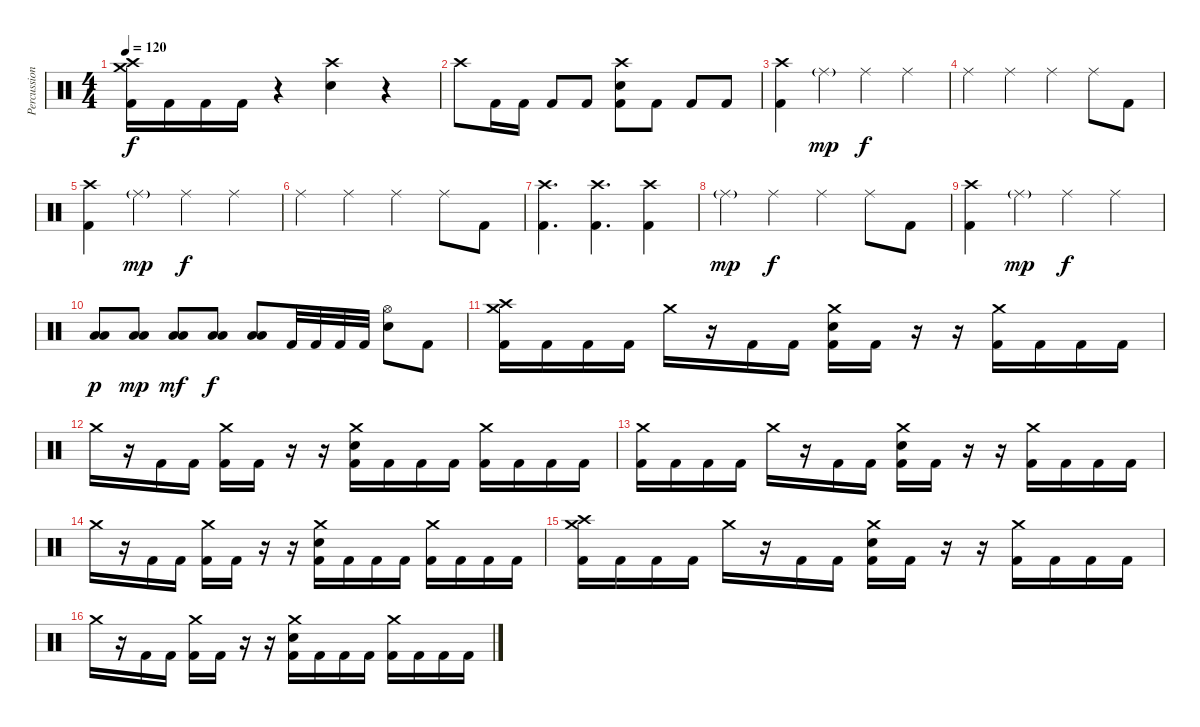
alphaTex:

\track ("Percussion" "Percussion") {instrument percussion}
\staff {score}
\articulation defaults
\ts (4 4)
\tempo 120
\clef neutral
\ks c
("Crash medium (hit)" "Crash high (hit)" "Kick (hit) 2").16{dy f} "Kick (hit) 2".16 "Kick (hit) 2".16 "Kick (hit) 2".16 r.4 ("Crash high (hit)" "Electric Snare (hit)").4 r.4 |
"Crash high (hit)".8 "Kick (hit) 2".16 "Kick (hit) 2".16 "Kick (hit) 2".8 "Kick (hit) 2".8 ("Crash high (hit)" "Electric Snare (hit)" "Kick (hit) 2").8 "Kick (hit) 2".8 "Kick (hit) 2".8 "Kick (hit) 2".8 |
("Crash high (hit)" "Kick (hit) 2").4 "Ride (middle)"{g}.4{dy mp} "Ride (middle)".4{dy f} "Ride (middle)".4 |
"Ride (middle)".4 "Ride (middle)".4 "Ride (middle)".4 "Ride (middle)".8 "Kick (hit) 2".8 |
("Crash high (hit)" "Kick (hit) 2").4 "Ride (middle)"{g}.4{dy mp} "Ride (middle)".4{dy f} "Ride (middle)".4 |
"Ride (middle)".4 "Ride (middle)".4 "Ride (middle)".4 "Ride (middle)".8 "Kick (hit) 2".8 |
("Crash high (hit)" "Kick (hit) 2").4{d} ("Crash high (hit)" "Kick (hit) 2").4{d} ("Crash high (hit)" "Kick (hit) 2").4 |
"Ride (middle)"{g}.4{dy mp} "Ride (middle)".4{dy f} "Ride (middle)".4 "Ride (middle)".8 "Kick (hit) 2".8 |
("Crash high (hit)" "Kick (hit) 2").4 "Ride (middle)"{g}.4{dy mp} "Ride (middle)".4{dy f} "Ride (middle)".4 |
("Low Tom (hit)" "Low Floor Tom (hit)").8{dy p} ("Low Tom (hit)" "Low Floor Tom (hit)").8{dy mp} ("Low Tom (hit)" "Low Floor Tom (hit)").8{dy mf} ("Low Tom (hit)" "Low Floor Tom (hit)").8{dy f} ("Low Tom (hit)" "Low Floor Tom (hit)").8 "Kick (hit) 2".32 "Kick (hit) 2".32 "Kick (hit) 2".32 "Kick (hit) 2".32 ("Hi-Hat (open)" "Electric Snare (hit)").8 "Kick (hit) 2".8 |
("Crash medium (hit)" "Crash high (hit)" "Kick (hit) 2").16 "Kick (hit) 2".16 "Kick (hit) 2".16 "Kick (hit) 2".16 "Crash medium (hit)".16 r.16 "Kick (hit) 2".16 "Kick (hit) 2".16 ("Crash medium (hit)" "Electric Snare (hit)" "Kick (hit) 2").16 "Kick (hit) 2".16 r.16 r.16 ("Crash medium (hit)" "Kick (hit) 2").16 "Kick (hit) 2".16 "Kick (hit) 2".16 "Kick (hit) 2".16 |
"Crash medium (hit)".16 r.16 "Kick (hit) 2".16 "Kick (hit) 2".16 ("Crash medium (hit)" "Kick (hit) 2").16 "Kick (hit) 2".16 r.16 r.16 ("Crash medium (hit)" "Electric Snare (hit)" "Kick (hit) 2").16 "Kick (hit) 2".16 "Kick (hit) 2".16 "Kick (hit) 2".16 ("Crash medium (hit)" "Kick (hit) 2").16 "Kick (hit) 2".16 "Kick (hit) 2".16 "Kick (hit) 2".16 |
("Crash medium (hit)" "Kick (hit) 2").16 "Kick (hit) 2".16 "Kick (hit) 2".16 "Kick (hit) 2".16 "Crash medium (hit)".16 r.16 "Kick (hit) 2".16 "Kick (hit) 2".16 ("Crash medium (hit)" "Electric Snare (hit)" "Kick (hit) 2").16 "Kick (hit) 2".16 r.16 r.16 ("Crash medium (hit)" "Kick (hit) 2").16 "Kick (hit) 2".16 "Kick (hit) 2".16 "Kick (hit) 2".16 |
"Crash medium (hit)".16 r.16 "Kick (hit) 2".16 "Kick (hit) 2".16 ("Crash medium (hit)" "Kick (hit) 2").16 "Kick (hit) 2".16 r.16 r.16 ("Crash medium (hit)" "Electric Snare (hit)" "Kick (hit) 2").16 "Kick (hit) 2".16 "Kick (hit) 2".16 "Kick (hit) 2".16 ("Crash medium (hit)" "Kick (hit) 2").16 "Kick (hit) 2".16 "Kick (hit) 2".16 "Kick (hit) 2".16 |
("Crash medium (hit)" "Crash high (hit)" "Kick (hit) 2").16 "Kick (hit) 2".16 "Kick (hit) 2".16 "Kick (hit) 2".16 "Crash medium (hit)".16 r.16 "Kick (hit) 2".16 "Kick (hit) 2".16 ("Crash medium (hit)" "Electric Snare (hit)" "Kick (hit) 2").16 "Kick (hit) 2".16 r.16 r.16 ("Crash medium (hit)" "Kick (hit) 2").16 "Kick (hit) 2".16 "Kick (hit) 2".16 "Kick (hit) 2".16 |
"Crash medium (hit)".16 r.16 "Kick (hit) 2".16 "Kick (hit) 2".16 ("Crash medium (hit)" "Kick (hit) 2").16 "Kick (hit) 2".16 r.16 r.16 ("Crash medium (hit)" "Electric Snare (hit)" "Kick (hit) 2").16 "Kick (hit) 2".16 "Kick (hit) 2".16 "Kick (hit) 2".16 ("Crash medium (hit)" "Kick (hit) 2").16 "Kick (hit) 2".16 "Kick (hit) 2".16 "Kick (hit) 2".16
